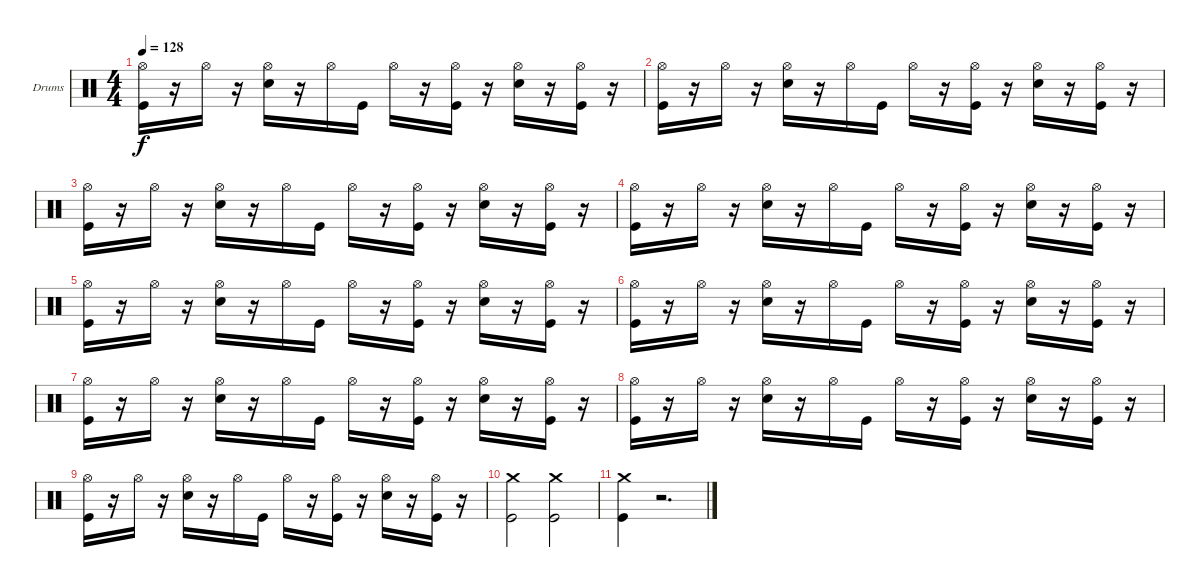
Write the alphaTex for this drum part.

\bracketExtendMode groupsimilarinstruments
\firstSystemTrackNameOrientation horizontal
\otherSystemsTrackNameOrientation horizontal
\track ("Drumkit" "Drums") {instrument percussion}
\staff {score}
\articulation defaults
\ts (4 4)
\tempo 128
\clef neutral
\ks c
("Kick (hit)" "Hi-Hat (open)").16{dy f} r.16 "Hi-Hat (open)".16 r.16 ("Snare (hit) 2" "Hi-Hat (open)").16 r.16 "Hi-Hat (open)".16 "Kick (hit)".16 "Hi-Hat (open)".16 r.16 ("Kick (hit)" "Hi-Hat (open)").16 r.16 ("Snare (hit) 2" "Hi-Hat (open)").16 r.16 ("Kick (hit)" "Hi-Hat (open)").16 r.16 |
("Kick (hit)" "Hi-Hat (open)").16 r.16 "Hi-Hat (open)".16 r.16 ("Snare (hit) 2" "Hi-Hat (open)").16 r.16 "Hi-Hat (open)".16 "Kick (hit)".16 "Hi-Hat (open)".16 r.16 ("Kick (hit)" "Hi-Hat (open)").16 r.16 ("Snare (hit) 2" "Hi-Hat (open)").16 r.16 ("Kick (hit)" "Hi-Hat (open)").16 r.16 |
("Kick (hit)" "Hi-Hat (open)").16 r.16 "Hi-Hat (open)".16 r.16 ("Snare (hit) 2" "Hi-Hat (open)").16 r.16 "Hi-Hat (open)".16 "Kick (hit)".16 "Hi-Hat (open)".16 r.16 ("Kick (hit)" "Hi-Hat (open)").16 r.16 ("Snare (hit) 2" "Hi-Hat (open)").16 r.16 ("Kick (hit)" "Hi-Hat (open)").16 r.16 |
("Kick (hit)" "Hi-Hat (open)").16 r.16 "Hi-Hat (open)".16 r.16 ("Snare (hit) 2" "Hi-Hat (open)").16 r.16 "Hi-Hat (open)".16 "Kick (hit)".16 "Hi-Hat (open)".16 r.16 ("Kick (hit)" "Hi-Hat (open)").16 r.16 ("Snare (hit) 2" "Hi-Hat (open)").16 r.16 ("Kick (hit)" "Hi-Hat (open)").16 r.16 |
("Kick (hit)" "Hi-Hat (open)").16 r.16 "Hi-Hat (open)".16 r.16 ("Snare (hit) 2" "Hi-Hat (open)").16 r.16 "Hi-Hat (open)".16 "Kick (hit)".16 "Hi-Hat (open)".16 r.16 ("Kick (hit)" "Hi-Hat (open)").16 r.16 ("Snare (hit) 2" "Hi-Hat (open)").16 r.16 ("Kick (hit)" "Hi-Hat (open)").16 r.16 |
("Kick (hit)" "Hi-Hat (open)").16 r.16 "Hi-Hat (open)".16 r.16 ("Snare (hit) 2" "Hi-Hat (open)").16 r.16 "Hi-Hat (open)".16 "Kick (hit)".16 "Hi-Hat (open)".16 r.16 ("Kick (hit)" "Hi-Hat (open)").16 r.16 ("Snare (hit) 2" "Hi-Hat (open)").16 r.16 ("Kick (hit)" "Hi-Hat (open)").16 r.16 |
("Kick (hit)" "Hi-Hat (open)").16 r.16 "Hi-Hat (open)".16 r.16 ("Snare (hit) 2" "Hi-Hat (open)").16 r.16 "Hi-Hat (open)".16 "Kick (hit)".16 "Hi-Hat (open)".16 r.16 ("Kick (hit)" "Hi-Hat (open)").16 r.16 ("Snare (hit) 2" "Hi-Hat (open)").16 r.16 ("Kick (hit)" "Hi-Hat (open)").16 r.16 |
("Kick (hit)" "Hi-Hat (open)").16 r.16 "Hi-Hat (open)".16 r.16 ("Snare (hit) 2" "Hi-Hat (open)").16 r.16 "Hi-Hat (open)".16 "Kick (hit)".16 "Hi-Hat (open)".16 r.16 ("Kick (hit)" "Hi-Hat (open)").16 r.16 ("Snare (hit) 2" "Hi-Hat (open)").16 r.16 ("Kick (hit)" "Hi-Hat (open)").16 r.16 |
("Kick (hit)" "Hi-Hat (open)").16 r.16 "Hi-Hat (open)".16 r.16 ("Snare (hit) 2" "Hi-Hat (open)").16 r.16 "Hi-Hat (open)".16 "Kick (hit)".16 "Hi-Hat (open)".16 r.16 ("Kick (hit)" "Hi-Hat (open)").16 r.16 ("Snare (hit) 2" "Hi-Hat (open)").16 r.16 ("Kick (hit)" "Hi-Hat (open)").16 r.16 |
("Kick (hit)" "Crash medium (hit)").2 ("Kick (hit)" "Crash medium (hit)").2 |
("Kick (hit)" "Crash medium (hit)").4 r.2{d}
